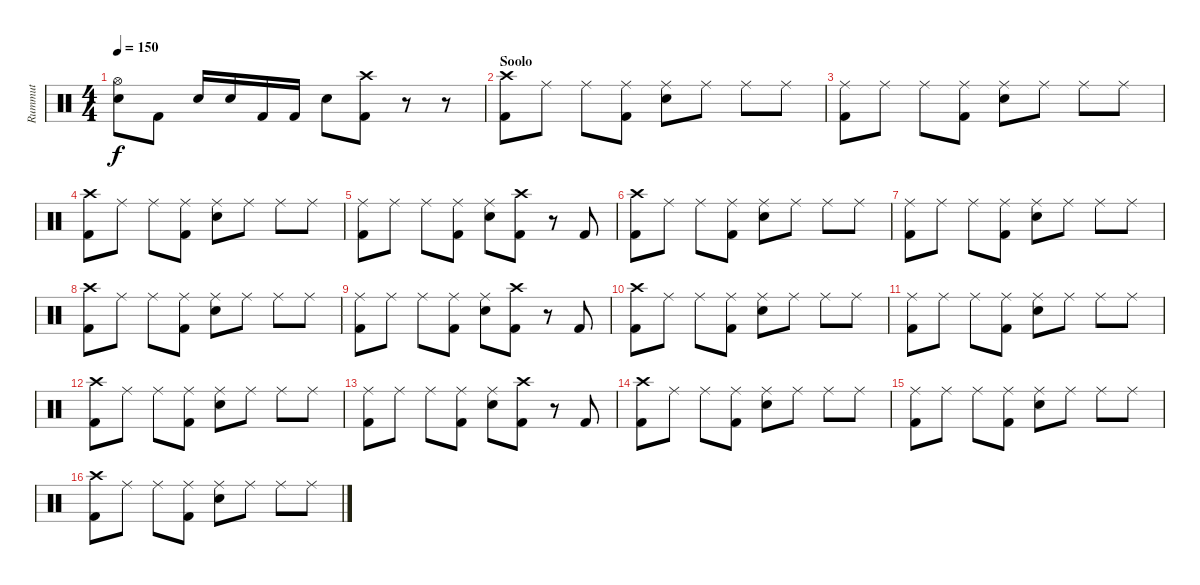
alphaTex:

\track ("Rummut" "Rummut") {instrument percussion}
\staff {score}
\articulation defaults
\ts (4 4)
\tempo 150
\clef neutral
\ks c
("Hi-Hat (open)" "Snare (hit) 2").8{dy f} "Kick (hit) 2".8 "Snare (hit) 2".16 "Snare (hit) 2".16 "Kick (hit) 2".16 "Kick (hit) 2".16 "Snare (hit) 2".8 ("Crash high (hit)" "Kick (hit) 2").8 r.8 r.8 |
\section ("" "Soolo")
("Crash high (hit)" "Kick (hit) 2").8 "Ride (middle)".8 "Ride (middle)".8 ("Ride (middle)" "Kick (hit) 2").8 ("Ride (middle)" "Snare (hit) 2").8 "Ride (middle)".8 "Ride (middle)".8 "Ride (middle)".8 |
("Ride (middle)" "Kick (hit) 2").8 "Ride (middle)".8 "Ride (middle)".8 ("Ride (middle)" "Kick (hit) 2").8 ("Ride (middle)" "Snare (hit) 2").8 "Ride (middle)".8 "Ride (middle)".8 "Ride (middle)".8 |
("Crash high (hit)" "Kick (hit) 2").8 "Ride (middle)".8 "Ride (middle)".8 ("Ride (middle)" "Kick (hit) 2").8 ("Ride (middle)" "Snare (hit) 2").8 "Ride (middle)".8 "Ride (middle)".8 "Ride (middle)".8 |
("Ride (middle)" "Kick (hit) 2").8 "Ride (middle)".8 "Ride (middle)".8 ("Ride (middle)" "Kick (hit) 2").8 ("Ride (middle)" "Snare (hit) 2").8 ("Crash high (hit)" "Kick (hit) 2").8 r.8 "Kick (hit) 2".8 |
("Crash high (hit)" "Kick (hit) 2").8 "Ride (middle)".8 "Ride (middle)".8 ("Ride (middle)" "Kick (hit) 2").8 ("Ride (middle)" "Snare (hit) 2").8 "Ride (middle)".8 "Ride (middle)".8 "Ride (middle)".8 |
("Ride (middle)" "Kick (hit) 2").8 "Ride (middle)".8 "Ride (middle)".8 ("Ride (middle)" "Kick (hit) 2").8 ("Ride (middle)" "Snare (hit) 2").8 "Ride (middle)".8 "Ride (middle)".8 "Ride (middle)".8 |
("Crash high (hit)" "Kick (hit) 2").8 "Ride (middle)".8 "Ride (middle)".8 ("Ride (middle)" "Kick (hit) 2").8 ("Ride (middle)" "Snare (hit) 2").8 "Ride (middle)".8 "Ride (middle)".8 "Ride (middle)".8 |
("Ride (middle)" "Kick (hit) 2").8 "Ride (middle)".8 "Ride (middle)".8 ("Ride (middle)" "Kick (hit) 2").8 ("Ride (middle)" "Snare (hit) 2").8 ("Crash high (hit)" "Kick (hit) 2").8 r.8 "Kick (hit) 2".8 |
("Crash high (hit)" "Kick (hit) 2").8 "Ride (middle)".8 "Ride (middle)".8 ("Ride (middle)" "Kick (hit) 2").8 ("Ride (middle)" "Snare (hit) 2").8 "Ride (middle)".8 "Ride (middle)".8 "Ride (middle)".8 |
("Ride (middle)" "Kick (hit) 2").8 "Ride (middle)".8 "Ride (middle)".8 ("Ride (middle)" "Kick (hit) 2").8 ("Ride (middle)" "Snare (hit) 2").8 "Ride (middle)".8 "Ride (middle)".8 "Ride (middle)".8 |
("Crash high (hit)" "Kick (hit) 2").8 "Ride (middle)".8 "Ride (middle)".8 ("Ride (middle)" "Kick (hit) 2").8 ("Ride (middle)" "Snare (hit) 2").8 "Ride (middle)".8 "Ride (middle)".8 "Ride (middle)".8 |
("Ride (middle)" "Kick (hit) 2").8 "Ride (middle)".8 "Ride (middle)".8 ("Ride (middle)" "Kick (hit) 2").8 ("Ride (middle)" "Snare (hit) 2").8 ("Crash high (hit)" "Kick (hit) 2").8 r.8 "Kick (hit) 2".8 |
("Crash high (hit)" "Kick (hit) 2").8 "Ride (middle)".8 "Ride (middle)".8 ("Ride (middle)" "Kick (hit) 2").8 ("Ride (middle)" "Snare (hit) 2").8 "Ride (middle)".8 "Ride (middle)".8 "Ride (middle)".8 |
("Ride (middle)" "Kick (hit) 2").8 "Ride (middle)".8 "Ride (middle)".8 ("Ride (middle)" "Kick (hit) 2").8 ("Ride (middle)" "Snare (hit) 2").8 "Ride (middle)".8 "Ride (middle)".8 "Ride (middle)".8 |
("Crash high (hit)" "Kick (hit) 2").8 "Ride (middle)".8 "Ride (middle)".8 ("Ride (middle)" "Kick (hit) 2").8 ("Ride (middle)" "Snare (hit) 2").8 "Ride (middle)".8 "Ride (middle)".8 "Ride (middle)".8
